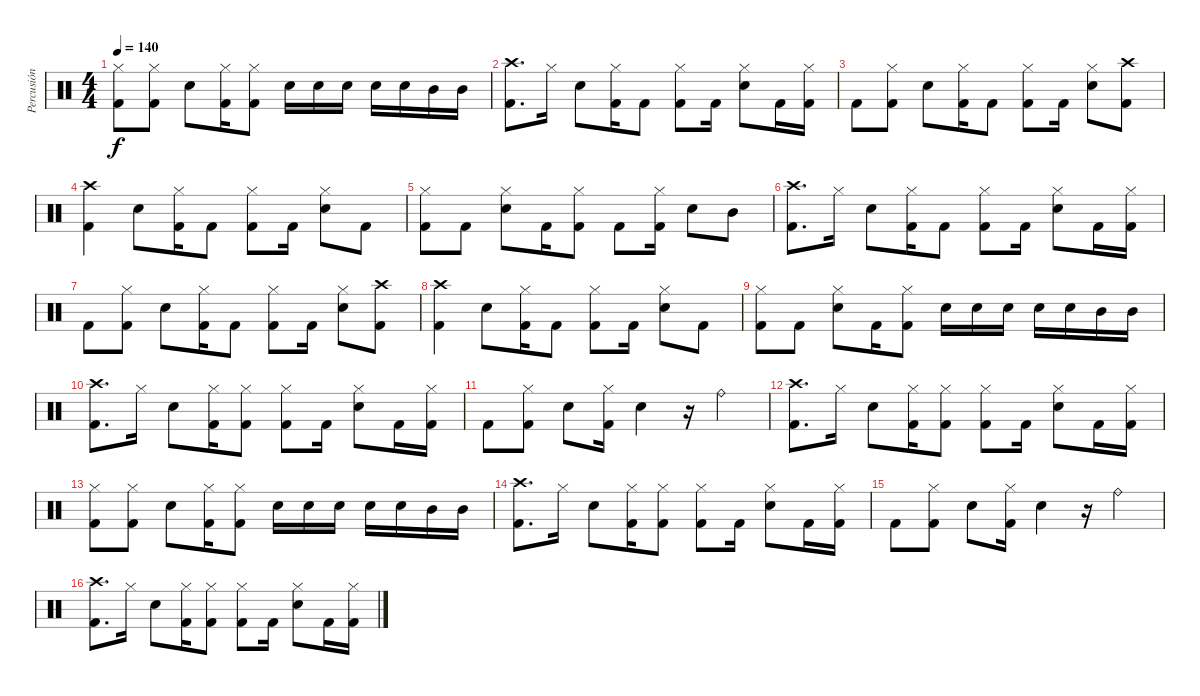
\track ("Percusión" "Percusión") {instrument percussion}
\staff {score}
\articulation defaults
\ts (4 4)
\tempo 140
\clef neutral
\ks c
("Kick (hit) 2" "Hi-Hat (closed)").8{dy f} ("Kick (hit) 2" "Hi-Hat (closed)").8 "Snare (hit) 2".8 ("Kick (hit) 2" "Hi-Hat (closed)").16 ("Kick (hit) 2" "Hi-Hat (closed)").8 "Snare (hit) 2".16 "Snare (hit) 2".16 "Snare (hit) 2".16 "Snare (hit) 2".16 "Snare (hit) 2".16 "Mid Tom (hit)".16 "Mid Tom (hit)".16 |
("Kick (hit) 2" "Crash high (hit)").8{d} "Hi-Hat (closed)".16 "Snare (hit) 2".8 ("Kick (hit) 2" "Hi-Hat (closed)").16 "Kick (hit) 2".8 ("Kick (hit) 2" "Hi-Hat (closed)").8 "Kick (hit) 2".16 ("Snare (hit) 2" "Hi-Hat (closed)").8 "Kick (hit) 2".16 ("Kick (hit) 2" "Hi-Hat (closed)").16 |
"Kick (hit) 2".8 ("Kick (hit) 2" "Hi-Hat (closed)").8 "Snare (hit) 2".8 ("Kick (hit) 2" "Hi-Hat (closed)").16 "Kick (hit) 2".8 ("Kick (hit) 2" "Hi-Hat (closed)").8 "Kick (hit) 2".16 ("Snare (hit) 2" "Hi-Hat (closed)").8 ("Kick (hit) 2" "Crash high (hit)").8 |
("Kick (hit) 2" "Crash high (hit)").4 "Snare (hit) 2".8 ("Kick (hit) 2" "Hi-Hat (closed)").16 "Kick (hit) 2".8 ("Kick (hit) 2" "Hi-Hat (closed)").8 "Kick (hit) 2".16 ("Snare (hit) 2" "Hi-Hat (closed)").8 "Kick (hit) 2".8 |
("Kick (hit) 2" "Hi-Hat (closed)").8 "Kick (hit) 2".8 ("Snare (hit) 2" "Hi-Hat (closed)").8 "Kick (hit) 2".16 ("Kick (hit) 2" "Hi-Hat (closed)").8 "Kick (hit) 2".8 ("Kick (hit) 2" "Hi-Hat (closed)").16 "Snare (hit) 2".8 "Mid Tom (hit)".8 |
("Kick (hit) 2" "Crash high (hit)").8{d} "Hi-Hat (closed)".16 "Snare (hit) 2".8 ("Kick (hit) 2" "Hi-Hat (closed)").16 "Kick (hit) 2".8 ("Kick (hit) 2" "Hi-Hat (closed)").8 "Kick (hit) 2".16 ("Snare (hit) 2" "Hi-Hat (closed)").8 "Kick (hit) 2".16 ("Kick (hit) 2" "Hi-Hat (closed)").16 |
"Kick (hit) 2".8 ("Kick (hit) 2" "Hi-Hat (closed)").8 "Snare (hit) 2".8 ("Kick (hit) 2" "Hi-Hat (closed)").16 "Kick (hit) 2".8 ("Kick (hit) 2" "Hi-Hat (closed)").8 "Kick (hit) 2".16 ("Snare (hit) 2" "Hi-Hat (closed)").8 ("Kick (hit) 2" "Crash high (hit)").8 |
("Kick (hit) 2" "Crash high (hit)").4 "Snare (hit) 2".8 ("Kick (hit) 2" "Hi-Hat (closed)").16 "Kick (hit) 2".8 ("Kick (hit) 2" "Hi-Hat (closed)").8 "Kick (hit) 2".16 ("Snare (hit) 2" "Hi-Hat (closed)").8 "Kick (hit) 2".8 |
("Kick (hit) 2" "Hi-Hat (closed)").8 "Kick (hit) 2".8 ("Snare (hit) 2" "Hi-Hat (closed)").8 "Kick (hit) 2".16 ("Kick (hit) 2" "Hi-Hat (closed)").8 "Snare (hit) 2".16 "Snare (hit) 2".16 "Snare (hit) 2".16 "Snare (hit) 2".16 "Snare (hit) 2".16 "Mid Tom (hit)".16 "Mid Tom (hit)".16 |
("Kick (hit) 2" "Crash high (hit)").8{d} "Hi-Hat (closed)".16 "Snare (hit) 2".8 ("Kick (hit) 2" "Hi-Hat (closed)").16 ("Kick (hit) 2" "Hi-Hat (closed)").8 ("Kick (hit) 2" "Hi-Hat (closed)").8 "Kick (hit) 2".16 ("Snare (hit) 2" "Hi-Hat (closed)").8 "Kick (hit) 2".16 ("Kick (hit) 2" "Hi-Hat (closed)").16 |
"Kick (hit) 2".8 ("Kick (hit) 2" "Hi-Hat (closed)").8 "Snare (hit) 2".8 ("Kick (hit) 2" "Hi-Hat (closed)").16 "Snare (hit) 2".4 r.16 "Ride (bell)".4 |
("Kick (hit) 2" "Crash high (hit)").8{d} "Hi-Hat (closed)".16 "Snare (hit) 2".8 ("Kick (hit) 2" "Hi-Hat (closed)").16 ("Kick (hit) 2" "Hi-Hat (closed)").8 ("Kick (hit) 2" "Hi-Hat (closed)").8 "Kick (hit) 2".16 ("Snare (hit) 2" "Hi-Hat (closed)").8 "Kick (hit) 2".16 ("Kick (hit) 2" "Hi-Hat (closed)").16 |
("Kick (hit) 2" "Hi-Hat (closed)").8 ("Kick (hit) 2" "Hi-Hat (closed)").8 "Snare (hit) 2".8 ("Kick (hit) 2" "Hi-Hat (closed)").16 ("Kick (hit) 2" "Hi-Hat (closed)").8 "Snare (hit) 2".16 "Snare (hit) 2".16 "Snare (hit) 2".16 "Snare (hit) 2".16 "Snare (hit) 2".16 "Mid Tom (hit)".16 "Mid Tom (hit)".16 |
("Kick (hit) 2" "Crash high (hit)").8{d} "Hi-Hat (closed)".16 "Snare (hit) 2".8 ("Kick (hit) 2" "Hi-Hat (closed)").16 ("Kick (hit) 2" "Hi-Hat (closed)").8 ("Kick (hit) 2" "Hi-Hat (closed)").8 "Kick (hit) 2".16 ("Snare (hit) 2" "Hi-Hat (closed)").8 "Kick (hit) 2".16 ("Kick (hit) 2" "Hi-Hat (closed)").16 |
"Kick (hit) 2".8 ("Kick (hit) 2" "Hi-Hat (closed)").8 "Snare (hit) 2".8 ("Kick (hit) 2" "Hi-Hat (closed)").16 "Snare (hit) 2".4 r.16 "Ride (bell)".4 |
("Kick (hit) 2" "Crash high (hit)").8{d} "Hi-Hat (closed)".16 "Snare (hit) 2".8 ("Kick (hit) 2" "Hi-Hat (closed)").16 ("Kick (hit) 2" "Hi-Hat (closed)").8 ("Kick (hit) 2" "Hi-Hat (closed)").8 "Kick (hit) 2".16 ("Snare (hit) 2" "Hi-Hat (closed)").8 "Kick (hit) 2".16 ("Kick (hit) 2" "Hi-Hat (closed)").16
